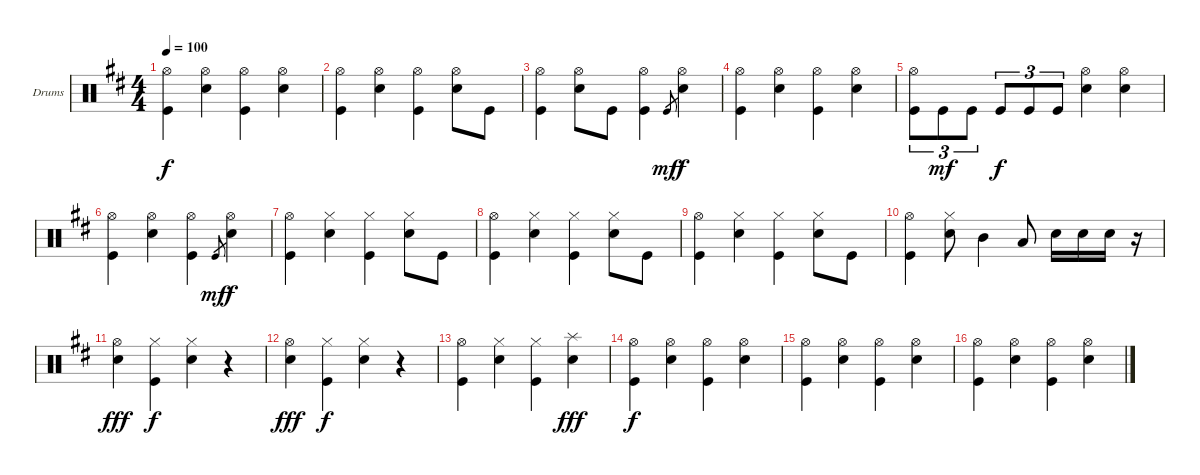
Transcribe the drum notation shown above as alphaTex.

\bracketExtendMode groupsimilarinstruments
\firstSystemTrackNameOrientation horizontal
\otherSystemsTrackNameOrientation horizontal
\track ("Drumkit" "Drums") {instrument percussion}
\staff {score}
\articulation defaults
\ts (4 4)
\tempo 100
\clef neutral
\scale
0.941992
\ks d
("Hi-Hat (open)" "Kick (hit)").4{dy f} ("Hi-Hat (open)" "Snare (hit) 2").4 ("Hi-Hat (open)" "Kick (hit)").4 ("Hi-Hat (open)" "Snare (hit) 2").4 |
\scale
1.05801 ("Hi-Hat (open)" "Kick (hit)").4 ("Hi-Hat (open)" "Snare (hit) 2").4 ("Hi-Hat (open)" "Kick (hit)").4 ("Hi-Hat (open)" "Snare (hit) 2").8 "Kick (hit)".8 |
\scale
0.941992 ("Hi-Hat (open)" "Kick (hit)").4 ("Hi-Hat (open)" "Snare (hit) 2").8 "Kick (hit)".8 ("Hi-Hat (open)" "Kick (hit)").4 "Kick (hit)".8{gr dy mf} ("Hi-Hat (open)" "Snare (hit) 2").4{dy f} |
\scale
1.05801 ("Hi-Hat (open)" "Kick (hit)").4 ("Hi-Hat (open)" "Snare (hit) 2").4 ("Hi-Hat (open)" "Kick (hit)").4 ("Hi-Hat (open)" "Snare (hit) 2").4 |
\scale
0.941992 ("Hi-Hat (open)" "Kick (hit)").8{tu (3 2)} "Kick (hit)".8{tu (3 2) dy mf} "Kick (hit)".8{tu (3 2)} "Kick (hit)".8{tu (3 2) dy f} "Kick (hit)".8{tu (3 2)} "Kick (hit)".8{tu (3 2)} ("Hi-Hat (open)" "Snare (hit) 2").4 ("Hi-Hat (open)" "Snare (hit) 2").4 |
\scale
1.05801 ("Hi-Hat (open)" "Kick (hit)").4 ("Hi-Hat (open)" "Snare (hit) 2").4 ("Hi-Hat (open)" "Kick (hit)").4 "Kick (hit)".8{gr dy mf} ("Hi-Hat (open)" "Snare (hit) 2").4{dy f} |
\scale
0.941992 ("Hi-Hat (open)" "Kick (hit)").4 ("Hi-Hat (closed)" "Snare (hit) 2").4 ("Hi-Hat (closed)" "Kick (hit)").4 ("Hi-Hat (closed)" "Snare (hit) 2").8 "Kick (hit)".8 |
\scale
1.05801 ("Hi-Hat (open)" "Kick (hit)").4 ("Hi-Hat (closed)" "Snare (hit) 2").4 ("Hi-Hat (closed)" "Kick (hit)").4 ("Hi-Hat (closed)" "Snare (hit) 2").8 "Kick (hit)".8 |
\scale
0.941992 ("Hi-Hat (open)" "Kick (hit)").4 ("Hi-Hat (closed)" "Snare (hit) 2").4 ("Hi-Hat (closed)" "Kick (hit)").4 ("Hi-Hat (closed)" "Snare (hit) 2").8 "Kick (hit)".8 |
\scale
1.05801 ("Hi-Hat (open)" "Kick (hit)").4 ("Hi-Hat (closed)" "Snare (hit) 2").8 "Mid Tom (hit)".4 "Low Tom (hit)".8 "Snare (hit) 2".16 "Snare (hit) 2".16 "Snare (hit) 2".16 r.16 |
\scale
0.941992 ("Hi-Hat (open)" "Snare (hit) 2").4{dy fff} ("Hi-Hat (closed)" "Kick (hit)").4{dy f} ("Hi-Hat (closed)" "Snare (hit) 2").4 r.4 |
\scale
1.05801 ("Hi-Hat (open)" "Snare (hit) 2").4{dy fff} ("Hi-Hat (closed)" "Kick (hit)").4{dy f} ("Hi-Hat (closed)" "Snare (hit) 2").4 r.4 |
\scale
0.941992 ("Hi-Hat (open)" "Kick (hit)").4 ("Hi-Hat (closed)" "Snare (hit) 2").4 ("Hi-Hat (closed)" "Kick (hit)").4 ("Splash (hit)" "Snare (hit) 2").4{dy fff} |
\scale
1.05801 ("Hi-Hat (open)" "Kick (hit)").4{dy f} ("Hi-Hat (open)" "Snare (hit) 2").4 ("Hi-Hat (open)" "Kick (hit)").4 ("Hi-Hat (open)" "Snare (hit) 2").4 |
\scale
0.941992 ("Hi-Hat (open)" "Kick (hit)").4 ("Hi-Hat (open)" "Snare (hit) 2").4 ("Hi-Hat (open)" "Kick (hit)").4 ("Hi-Hat (open)" "Snare (hit) 2").4 |
\scale
1.05801 ("Hi-Hat (open)" "Kick (hit)").4 ("Hi-Hat (open)" "Snare (hit) 2").4 ("Hi-Hat (open)" "Kick (hit)").4 ("Hi-Hat (open)" "Snare (hit) 2").4
